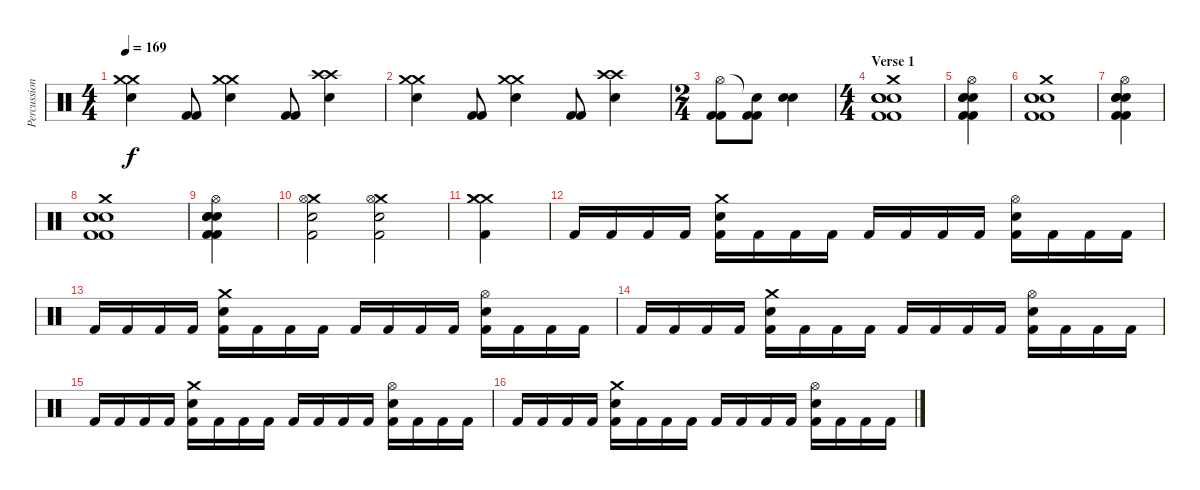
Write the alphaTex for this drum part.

\track ("Percussion" "Percussion") {instrument percussion}
\staff {score}
\articulation defaults
\ts (4 4)
\tempo 169
\clef neutral
\ks c
("Crash medium (hit)" "Crash medium (hit)" "Snare (hit) 2").4{dy f} ("Kick (hit) 2" "Kick (hit) 2").8 ("Crash medium (hit)" "Crash medium (hit)" "Snare (hit) 2").4 ("Kick (hit) 2" "Kick (hit) 2").8 ("Crash high (hit)" "Crash high (hit)" "Snare (hit) 2").4 |
("Crash medium (hit)" "Crash medium (hit)" "Snare (hit) 2").4 ("Kick (hit) 2" "Kick (hit) 2").8 ("Crash medium (hit)" "Crash medium (hit)" "Snare (hit) 2").4 ("Kick (hit) 2" "Kick (hit) 2").8 ("Crash high (hit)" "Crash high (hit)" "Snare (hit) 2").4 |
\ts (2 4)
("Kick (hit) 2" "Kick (hit) 2" "Hi-Hat (open)").8 ("Kick (hit) 2" "Kick (hit) 2" "Snare (hit)"{t}).8 ("Snare (hit) 2" "Snare (hit) 2").4 |
\ts (4 4)
\section ("" "Verse 1")
("Crash medium (hit)" "Electric Snare (hit)" "Snare (hit) 2" "Snare (hit) 2" "Kick (hit) 2" "Kick (hit) 2").1 |
("Hi-Hat (open)" "Electric Snare (hit)" "Snare (hit) 2" "Snare (hit) 2" "Kick (hit) 2" "Kick (hit) 2").4 |
("Crash medium (hit)" "Electric Snare (hit)" "Snare (hit) 2" "Snare (hit) 2" "Kick (hit) 2" "Kick (hit) 2").1 |
("Hi-Hat (open)" "Electric Snare (hit)" "Snare (hit) 2" "Snare (hit) 2" "Kick (hit) 2" "Kick (hit) 2").4 |
("Crash medium (hit)" "Electric Snare (hit)" "Snare (hit) 2" "Snare (hit) 2" "Kick (hit) 2" "Kick (hit) 2").1 |
("Hi-Hat (open)" "Electric Snare (hit)" "Snare (hit) 2" "Snare (hit) 2" "Kick (hit) 2" "Kick (hit) 2").4 |
("Crash medium (hit)" "Hi-Hat (open)" "Snare (hit) 2" "Kick (hit) 2").2 ("Crash medium (hit)" "Hi-Hat (open)" "Electric Snare (hit)" "Kick (hit) 2").2 |
("Crash medium (hit)" "Crash medium (hit)" "Crash medium (hit)" "Kick (hit) 2").4 |
"Kick (hit) 2".16 "Kick (hit) 2".16 "Kick (hit) 2".16 "Kick (hit) 2".16 ("Crash medium (hit)" "Electric Snare (hit)" "Kick (hit) 2").16 "Kick (hit) 2".16 "Kick (hit) 2".16 "Kick (hit) 2".16 "Kick (hit) 2".16 "Kick (hit) 2".16 "Kick (hit) 2".16 "Kick (hit) 2".16 ("Hi-Hat (open)" "Snare (hit) 2" "Kick (hit) 2").16 "Kick (hit) 2".16 "Kick (hit) 2".16 "Kick (hit) 2".16 |
"Kick (hit) 2".16 "Kick (hit) 2".16 "Kick (hit) 2".16 "Kick (hit) 2".16 ("Crash medium (hit)" "Electric Snare (hit)" "Kick (hit) 2").16 "Kick (hit) 2".16 "Kick (hit) 2".16 "Kick (hit) 2".16 "Kick (hit) 2".16 "Kick (hit) 2".16 "Kick (hit) 2".16 "Kick (hit) 2".16 ("Hi-Hat (open)" "Snare (hit) 2" "Kick (hit) 2").16 "Kick (hit) 2".16 "Kick (hit) 2".16 "Kick (hit) 2".16 |
"Kick (hit) 2".16 "Kick (hit) 2".16 "Kick (hit) 2".16 "Kick (hit) 2".16 ("Crash medium (hit)" "Electric Snare (hit)" "Kick (hit) 2").16 "Kick (hit) 2".16 "Kick (hit) 2".16 "Kick (hit) 2".16 "Kick (hit) 2".16 "Kick (hit) 2".16 "Kick (hit) 2".16 "Kick (hit) 2".16 ("Hi-Hat (open)" "Snare (hit) 2" "Kick (hit) 2").16 "Kick (hit) 2".16 "Kick (hit) 2".16 "Kick (hit) 2".16 |
"Kick (hit) 2".16 "Kick (hit) 2".16 "Kick (hit) 2".16 "Kick (hit) 2".16 ("Crash medium (hit)" "Electric Snare (hit)" "Kick (hit) 2").16 "Kick (hit) 2".16 "Kick (hit) 2".16 "Kick (hit) 2".16 "Kick (hit) 2".16 "Kick (hit) 2".16 "Kick (hit) 2".16 "Kick (hit) 2".16 ("Hi-Hat (open)" "Snare (hit) 2" "Kick (hit) 2").16 "Kick (hit) 2".16 "Kick (hit) 2".16 "Kick (hit) 2".16 |
"Kick (hit) 2".16 "Kick (hit) 2".16 "Kick (hit) 2".16 "Kick (hit) 2".16 ("Crash medium (hit)" "Electric Snare (hit)" "Kick (hit) 2").16 "Kick (hit) 2".16 "Kick (hit) 2".16 "Kick (hit) 2".16 "Kick (hit) 2".16 "Kick (hit) 2".16 "Kick (hit) 2".16 "Kick (hit) 2".16 ("Hi-Hat (open)" "Snare (hit) 2" "Kick (hit) 2").16 "Kick (hit) 2".16 "Kick (hit) 2".16 "Kick (hit) 2".16
